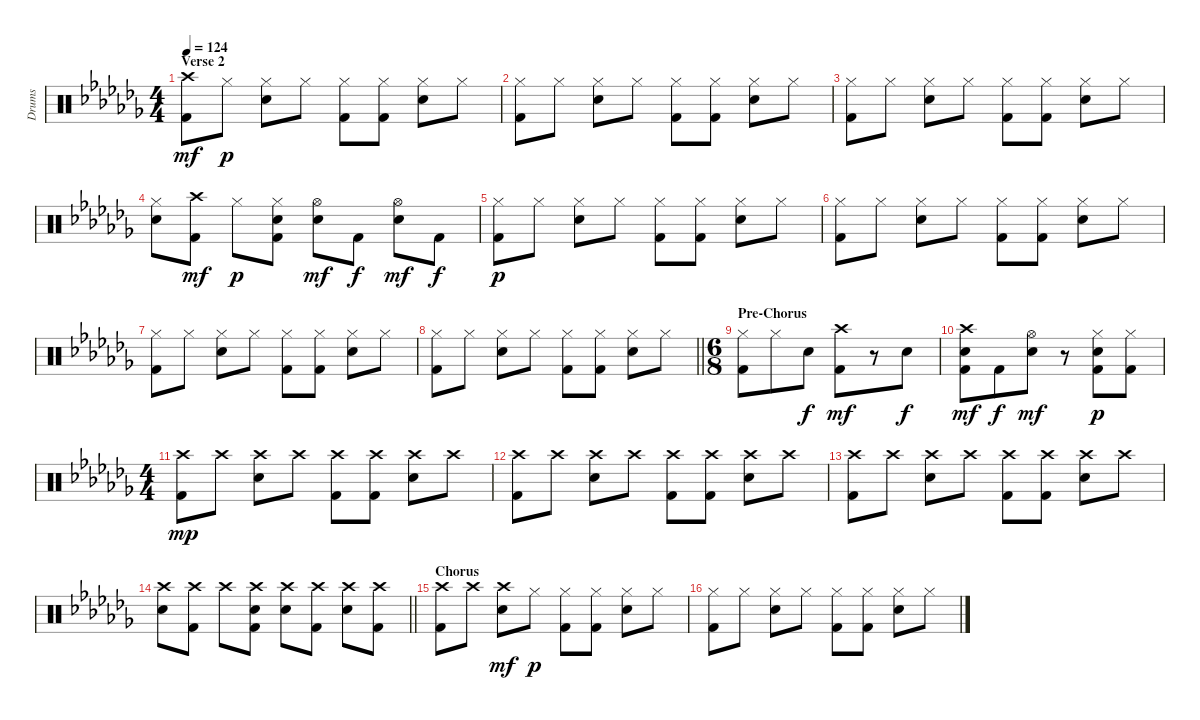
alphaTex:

\track ("Drums" "Drums") {instrument percussion}
\staff {score}
\articulation defaults
\ts (4 4)
\section ("" "Verse 2")
\tempo 124
\clef neutral
\ks cb
("Crash high (hit)" "Kick (hit) 2").8{dy mf} "Hi-Hat (closed)".8{dy p} ("Hi-Hat (closed)" "Electric Snare (hit)").8 "Hi-Hat (closed)".8 ("Hi-Hat (closed)" "Kick (hit) 2").8 ("Hi-Hat (closed)" "Kick (hit) 2").8 ("Hi-Hat (closed)" "Electric Snare (hit)").8 "Hi-Hat (closed)".8 |
("Hi-Hat (closed)" "Kick (hit) 2").8 "Hi-Hat (closed)".8 ("Hi-Hat (closed)" "Electric Snare (hit)").8 "Hi-Hat (closed)".8 ("Hi-Hat (closed)" "Kick (hit) 2").8 ("Hi-Hat (closed)" "Kick (hit) 2").8 ("Hi-Hat (closed)" "Electric Snare (hit)").8 "Hi-Hat (closed)".8 |
("Hi-Hat (closed)" "Kick (hit) 2").8 "Hi-Hat (closed)".8 ("Hi-Hat (closed)" "Electric Snare (hit)").8 "Hi-Hat (closed)".8 ("Hi-Hat (closed)" "Kick (hit) 2").8 ("Hi-Hat (closed)" "Kick (hit) 2").8 ("Hi-Hat (closed)" "Electric Snare (hit)").8 "Hi-Hat (closed)".8 |
("Hi-Hat (closed)" "Electric Snare (hit)").8 ("Crash high (hit)" "Kick (hit) 2").8{dy mf} "Hi-Hat (closed)".8{dy p} ("Hi-Hat (closed)" "Electric Snare (hit)" "Kick (hit) 2").8 ("Hi-Hat (open)" "Electric Snare (hit)").8{dy mf} "Kick (hit) 2".8{dy f} ("Hi-Hat (open)" "Electric Snare (hit)").8{dy mf} "Kick (hit) 2".8{dy f} |
("Hi-Hat (closed)" "Kick (hit) 2").8{dy p} "Hi-Hat (closed)".8 ("Hi-Hat (closed)" "Electric Snare (hit)").8 "Hi-Hat (closed)".8 ("Hi-Hat (closed)" "Kick (hit) 2").8 ("Hi-Hat (closed)" "Kick (hit) 2").8 ("Hi-Hat (closed)" "Electric Snare (hit)").8 "Hi-Hat (closed)".8 |
("Hi-Hat (closed)" "Kick (hit) 2").8 "Hi-Hat (closed)".8 ("Hi-Hat (closed)" "Electric Snare (hit)").8 "Hi-Hat (closed)".8 ("Hi-Hat (closed)" "Kick (hit) 2").8 ("Hi-Hat (closed)" "Kick (hit) 2").8 ("Hi-Hat (closed)" "Electric Snare (hit)").8 "Hi-Hat (closed)".8 |
("Hi-Hat (closed)" "Kick (hit) 2").8 "Hi-Hat (closed)".8 ("Hi-Hat (closed)" "Electric Snare (hit)").8 "Hi-Hat (closed)".8 ("Hi-Hat (closed)" "Kick (hit) 2").8 ("Hi-Hat (closed)" "Kick (hit) 2").8 ("Hi-Hat (closed)" "Electric Snare (hit)").8 "Hi-Hat (closed)".8 |
\barLineRight lightlight
("Hi-Hat (closed)" "Kick (hit) 2").8 "Hi-Hat (closed)".8 ("Hi-Hat (closed)" "Electric Snare (hit)").8 "Hi-Hat (closed)".8 ("Hi-Hat (closed)" "Kick (hit) 2").8 ("Hi-Hat (closed)" "Kick (hit) 2").8 ("Hi-Hat (closed)" "Electric Snare (hit)").8 "Hi-Hat (closed)".8 |
\ts (6 8)
\section ("" "Pre-Chorus")
("Hi-Hat (closed)" "Kick (hit) 2").8 "Hi-Hat (closed)".8 "Electric Snare (hit)".8{dy f} ("Crash high (hit)" "Kick (hit) 2").8{dy mf} r.8 "Electric Snare (hit)".8{dy f} |
("Crash high (hit)" "Electric Snare (hit)" "Kick (hit) 2").8{dy mf} "Kick (hit) 2".8{dy f} ("Hi-Hat (open)" "Electric Snare (hit)").8{dy mf} r.8 ("Hi-Hat (closed)" "Electric Snare (hit)" "Kick (hit) 2").8{dy p} ("Hi-Hat (closed)" "Kick (hit) 2").8 |
\ts (4 4)
("Crash high (hit)" "Kick (hit) 2").8{dy mp} "Crash high (hit)".8 ("Crash high (hit)" "Electric Snare (hit)").8 "Crash high (hit)".8 ("Crash high (hit)" "Kick (hit) 2").8 ("Crash high (hit)" "Kick (hit) 2").8 ("Crash high (hit)" "Electric Snare (hit)").8 "Crash high (hit)".8 |
("Crash high (hit)" "Kick (hit) 2").8 "Crash high (hit)".8 ("Crash high (hit)" "Electric Snare (hit)").8 "Crash high (hit)".8 ("Crash high (hit)" "Kick (hit) 2").8 ("Crash high (hit)" "Kick (hit) 2").8 ("Crash high (hit)" "Electric Snare (hit)").8 "Crash high (hit)".8 |
("Crash high (hit)" "Kick (hit) 2").8 "Crash high (hit)".8 ("Crash high (hit)" "Electric Snare (hit)").8 "Crash high (hit)".8 ("Crash high (hit)" "Kick (hit) 2").8 ("Crash high (hit)" "Kick (hit) 2").8 ("Crash high (hit)" "Electric Snare (hit)").8 "Crash high (hit)".8 |
\barLineRight lightlight
("Crash high (hit)" "Electric Snare (hit)").8 ("Crash high (hit)" "Kick (hit) 2").8 "Crash high (hit)".8 ("Crash high (hit)" "Electric Snare (hit)" "Kick (hit) 2").8 ("Crash high (hit)" "Electric Snare (hit)").8 ("Crash high (hit)" "Kick (hit) 2").8 ("Crash high (hit)" "Electric Snare (hit)").8 ("Crash high (hit)" "Kick (hit) 2").8 |
\section ("" "Chorus")
("Crash high (hit)" "Kick (hit) 2").8 "Crash high (hit)".8 ("Crash high (hit)" "Electric Snare (hit)").8{dy mf} "Hi-Hat (closed)".8{dy p} ("Hi-Hat (closed)" "Kick (hit) 2").8 ("Hi-Hat (closed)" "Kick (hit) 2").8 ("Hi-Hat (closed)" "Electric Snare (hit)").8 "Hi-Hat (closed)".8 |
("Hi-Hat (closed)" "Kick (hit) 2").8 "Hi-Hat (closed)".8 ("Hi-Hat (closed)" "Electric Snare (hit)").8 "Hi-Hat (closed)".8 ("Hi-Hat (closed)" "Kick (hit) 2").8 ("Hi-Hat (closed)" "Kick (hit) 2").8 ("Hi-Hat (closed)" "Electric Snare (hit)").8 "Hi-Hat (closed)".8
